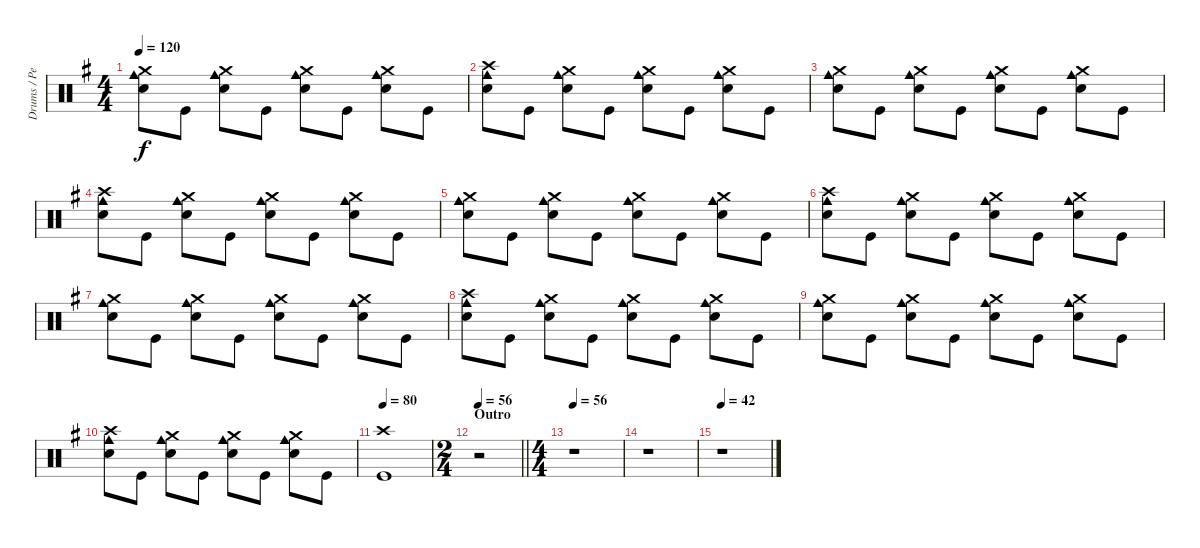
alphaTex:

\track ("Drums / Percussion" "Drums / Pe") {instrument percussion}
\staff {score}
\articulation defaults
\ts (4 4)
\tempo 120
\clef neutral
\ks eminor
("Crash medium (hit)" "Cowbell medium (hit)" "Snare (hit) 2").8{dy f} "Kick (hit)".8 ("Crash medium (hit)" "Cowbell medium (hit)" "Snare (hit) 2").8 "Kick (hit)".8 ("Crash medium (hit)" "Cowbell medium (hit)" "Snare (hit) 2").8 "Kick (hit)".8 ("Crash medium (hit)" "Cowbell medium (hit)" "Snare (hit) 2").8 "Kick (hit)".8 |
("Crash high (hit)" "Cowbell medium (hit)" "Snare (hit) 2").8 "Kick (hit)".8 ("Crash medium (hit)" "Cowbell medium (hit)" "Snare (hit) 2").8 "Kick (hit)".8 ("Crash medium (hit)" "Cowbell medium (hit)" "Snare (hit) 2").8 "Kick (hit)".8 ("Crash medium (hit)" "Cowbell medium (hit)" "Snare (hit) 2").8 "Kick (hit)".8 |
("Crash medium (hit)" "Cowbell medium (hit)" "Snare (hit) 2").8 "Kick (hit)".8 ("Crash medium (hit)" "Cowbell medium (hit)" "Snare (hit) 2").8 "Kick (hit)".8 ("Crash medium (hit)" "Cowbell medium (hit)" "Snare (hit) 2").8 "Kick (hit)".8 ("Crash medium (hit)" "Cowbell medium (hit)" "Snare (hit) 2").8 "Kick (hit)".8 |
("Crash high (hit)" "Cowbell medium (hit)" "Snare (hit) 2").8 "Kick (hit)".8 ("Crash medium (hit)" "Cowbell medium (hit)" "Snare (hit) 2").8 "Kick (hit)".8 ("Crash medium (hit)" "Cowbell medium (hit)" "Snare (hit) 2").8 "Kick (hit)".8 ("Crash medium (hit)" "Cowbell medium (hit)" "Snare (hit) 2").8 "Kick (hit)".8 |
("Crash medium (hit)" "Cowbell medium (hit)" "Snare (hit) 2").8 "Kick (hit)".8 ("Crash medium (hit)" "Cowbell medium (hit)" "Snare (hit) 2").8 "Kick (hit)".8 ("Crash medium (hit)" "Cowbell medium (hit)" "Snare (hit) 2").8 "Kick (hit)".8 ("Crash medium (hit)" "Cowbell medium (hit)" "Snare (hit) 2").8 "Kick (hit)".8 |
("Crash high (hit)" "Cowbell medium (hit)" "Snare (hit) 2").8 "Kick (hit)".8 ("Crash medium (hit)" "Cowbell medium (hit)" "Snare (hit) 2").8 "Kick (hit)".8 ("Crash medium (hit)" "Cowbell medium (hit)" "Snare (hit) 2").8 "Kick (hit)".8 ("Crash medium (hit)" "Cowbell medium (hit)" "Snare (hit) 2").8 "Kick (hit)".8 |
("Crash medium (hit)" "Cowbell medium (hit)" "Snare (hit) 2").8 "Kick (hit)".8 ("Crash medium (hit)" "Cowbell medium (hit)" "Snare (hit) 2").8 "Kick (hit)".8 ("Crash medium (hit)" "Cowbell medium (hit)" "Snare (hit) 2").8 "Kick (hit)".8 ("Crash medium (hit)" "Cowbell medium (hit)" "Snare (hit) 2").8 "Kick (hit)".8 |
("Crash high (hit)" "Cowbell medium (hit)" "Snare (hit) 2").8 "Kick (hit)".8 ("Crash medium (hit)" "Cowbell medium (hit)" "Snare (hit) 2").8 "Kick (hit)".8 ("Crash medium (hit)" "Cowbell medium (hit)" "Snare (hit) 2").8 "Kick (hit)".8 ("Crash medium (hit)" "Cowbell medium (hit)" "Snare (hit) 2").8 "Kick (hit)".8 |
("Crash medium (hit)" "Cowbell medium (hit)" "Snare (hit) 2").8 "Kick (hit)".8 ("Crash medium (hit)" "Cowbell medium (hit)" "Snare (hit) 2").8 "Kick (hit)".8 ("Crash medium (hit)" "Cowbell medium (hit)" "Snare (hit) 2").8 "Kick (hit)".8 ("Crash medium (hit)" "Cowbell medium (hit)" "Snare (hit) 2").8 "Kick (hit)".8 |
("Crash high (hit)" "Cowbell medium (hit)" "Snare (hit) 2").8 "Kick (hit)".8 ("Crash medium (hit)" "Cowbell medium (hit)" "Snare (hit) 2").8 "Kick (hit)".8 ("Crash medium (hit)" "Cowbell medium (hit)" "Snare (hit) 2").8 "Kick (hit)".8 ("Crash medium (hit)" "Cowbell medium (hit)" "Snare (hit) 2").8 "Kick (hit)".8 |
\tempo 80
("Crash high (hit)" "Kick (hit)").1 |
\ts (2 4)
\section ("" "Outro")
\tempo 56
\barLineRight lightlight
r.2 |
\ts (4 4)
\tempo 56
r.1 |
r.1{volume 14} |
\tempo 42
r.1
